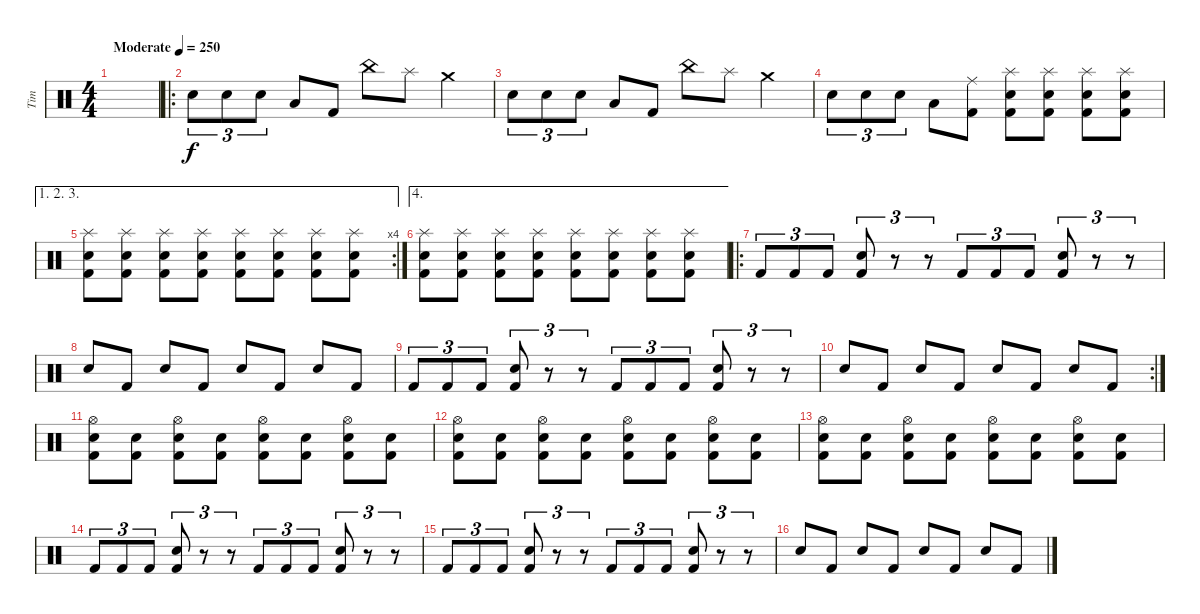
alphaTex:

\track ("Tim" "Tim") {instrument percussion}
\staff {score}
\articulation defaults
\ts (4 4)
\tempo (250 "Moderate")
\clef neutral
\ks c
|
\ro "Electric Snare (hit)".8{tu (3 2)} "Electric Snare (hit)".8{tu (3 2)} "Electric Snare (hit)".8{tu (3 2)} "Low Tom (hit)".8 "Kick (hit) 2".8 "China (hit)".8 "Splash (hit)".8 "Crash medium (hit)".4
|
"Electric Snare (hit)".8{tu (3 2)} "Electric Snare (hit)".8{tu (3 2)} "Electric Snare (hit)".8{tu (3 2)} "Low Tom (hit)".8 "Kick (hit) 2".8 "China (hit)".8 "Splash (hit)".8 "Crash medium (hit)".4 |
"Electric Snare (hit)".8{tu (3 2)} "Electric Snare (hit)".8{tu (3 2)} "Electric Snare (hit)".8{tu (3 2)} "Low Tom (hit)".8 ("Ride (middle)" "Kick (hit) 2").8 ("Splash (hit)" "Electric Snare (hit)" "Kick (hit) 2").8 ("Splash (hit)" "Electric Snare (hit)" "Kick (hit) 2").8 ("Splash (hit)" "Electric Snare (hit)" "Kick (hit) 2").8 ("Splash (hit)" "Electric Snare (hit)" "Kick (hit) 2").8 |
\ae (1 2 3)
\rc 4
("Splash (hit)" "Electric Snare (hit)" "Kick (hit) 2").8 ("Splash (hit)" "Electric Snare (hit)" "Kick (hit) 2").8 ("Splash (hit)" "Electric Snare (hit)" "Kick (hit) 2").8 ("Splash (hit)" "Electric Snare (hit)" "Kick (hit) 2").8 ("Splash (hit)" "Electric Snare (hit)" "Kick (hit) 2").8 ("Splash (hit)" "Electric Snare (hit)" "Kick (hit) 2").8 ("Splash (hit)" "Electric Snare (hit)" "Kick (hit) 2").8 ("Splash (hit)" "Electric Snare (hit)" "Kick (hit) 2").8 |
\ae 4
("Splash (hit)" "Electric Snare (hit)" "Kick (hit) 2").8 ("Splash (hit)" "Electric Snare (hit)" "Kick (hit) 2").8 ("Splash (hit)" "Electric Snare (hit)" "Kick (hit) 2").8 ("Splash (hit)" "Electric Snare (hit)" "Kick (hit) 2").8 ("Splash (hit)" "Electric Snare (hit)" "Kick (hit) 2").8 ("Splash (hit)" "Electric Snare (hit)" "Kick (hit) 2").8 ("Splash (hit)" "Electric Snare (hit)" "Kick (hit) 2").8 ("Splash (hit)" "Electric Snare (hit)" "Kick (hit) 2").8 |
\ro "Kick (hit) 2".8{tu (3 2)} "Kick (hit) 2".8{tu (3 2)} "Kick (hit) 2".8{tu (3 2)}
("Electric Snare (hit)" "Kick (hit) 2").8{tu (3 2)} r.8{tu (3 2)} r.8{tu (3 2)} "Kick (hit) 2".8{tu (3 2)} "Kick (hit) 2".8{tu (3 2)} "Kick (hit) 2".8{tu (3 2)} ("Electric Snare (hit)" "Kick (hit) 2").8{tu (3 2)} r.8{tu (3 2)} r.8{tu (3 2)} |
"Electric Snare (hit)".8 "Kick (hit) 2".8 "Electric Snare (hit)".8 "Kick (hit) 2".8 "Electric Snare (hit)".8 "Kick (hit) 2".8 "Electric Snare (hit)".8 "Kick (hit) 2".8 |
"Kick (hit) 2".8{tu (3 2)} "Kick (hit) 2".8{tu (3 2)} "Kick (hit) 2".8{tu (3 2)} ("Electric Snare (hit)" "Kick (hit) 2").8{tu (3 2)} r.8{tu (3 2)} r.8{tu (3 2)} "Kick (hit) 2".8{tu (3 2)} "Kick (hit) 2".8{tu (3 2)} "Kick (hit) 2".8{tu (3 2)} ("Electric Snare (hit)" "Kick (hit) 2").8{tu (3 2)} r.8{tu (3 2)} r.8{tu (3 2)} |
\rc 2 "Electric Snare (hit)".8 "Kick (hit) 2".8 "Electric Snare (hit)".8 "Kick (hit) 2".8 "Electric Snare (hit)".8 "Kick (hit) 2".8 "Electric Snare (hit)".8 "Kick (hit) 2".8
|
("Hi-Hat (open)" "Electric Snare (hit)" "Kick (hit) 2").8 ("Electric Snare (hit)" "Kick (hit) 2").8 ("Hi-Hat (open)" "Electric Snare (hit)" "Kick (hit) 2").8 ("Electric Snare (hit)" "Kick (hit) 2").8 ("Hi-Hat (open)" "Electric Snare (hit)" "Kick (hit) 2").8 ("Electric Snare (hit)" "Kick (hit) 2").8 ("Hi-Hat (open)" "Electric Snare (hit)" "Kick (hit) 2").8 ("Electric Snare (hit)" "Kick (hit) 2").8 |
("Hi-Hat (open)" "Electric Snare (hit)" "Kick (hit) 2").8 ("Electric Snare (hit)" "Kick (hit) 2").8 ("Hi-Hat (open)" "Electric Snare (hit)" "Kick (hit) 2").8 ("Electric Snare (hit)" "Kick (hit) 2").8 ("Hi-Hat (open)" "Electric Snare (hit)" "Kick (hit) 2").8 ("Electric Snare (hit)" "Kick (hit) 2").8 ("Hi-Hat (open)" "Electric Snare (hit)" "Kick (hit) 2").8 ("Electric Snare (hit)" "Kick (hit) 2").8 |
("Hi-Hat (open)" "Electric Snare (hit)" "Kick (hit) 2").8 ("Electric Snare (hit)" "Kick (hit) 2").8 ("Hi-Hat (open)" "Electric Snare (hit)" "Kick (hit) 2").8 ("Electric Snare (hit)" "Kick (hit) 2").8 ("Hi-Hat (open)" "Electric Snare (hit)" "Kick (hit) 2").8 ("Electric Snare (hit)" "Kick (hit) 2").8 ("Hi-Hat (open)" "Electric Snare (hit)" "Kick (hit) 2").8 ("Electric Snare (hit)" "Kick (hit) 2").8 |
"Kick (hit) 2".8{tu (3 2)} "Kick (hit) 2".8{tu (3 2)} "Kick (hit) 2".8{tu (3 2)} ("Electric Snare (hit)" "Kick (hit) 2").8{tu (3 2)} r.8{tu (3 2)} r.8{tu (3 2)} "Kick (hit) 2".8{tu (3 2)} "Kick (hit) 2".8{tu (3 2)} "Kick (hit) 2".8{tu (3 2)} ("Electric Snare (hit)" "Kick (hit) 2").8{tu (3 2)} r.8{tu (3 2)} r.8{tu (3 2)} |
"Kick (hit) 2".8{tu (3 2)} "Kick (hit) 2".8{tu (3 2)} "Kick (hit) 2".8{tu (3 2)} ("Electric Snare (hit)" "Kick (hit) 2").8{tu (3 2)} r.8{tu (3 2)} r.8{tu (3 2)} "Kick (hit) 2".8{tu (3 2)} "Kick (hit) 2".8{tu (3 2)} "Kick (hit) 2".8{tu (3 2)} ("Electric Snare (hit)" "Kick (hit) 2").8{tu (3 2)} r.8{tu (3 2)} r.8{tu (3 2)} |
"Electric Snare (hit)".8 "Kick (hit) 2".8 "Electric Snare (hit)".8 "Kick (hit) 2".8 "Electric Snare (hit)".8 "Kick (hit) 2".8 "Electric Snare (hit)".8 "Kick (hit) 2".8
